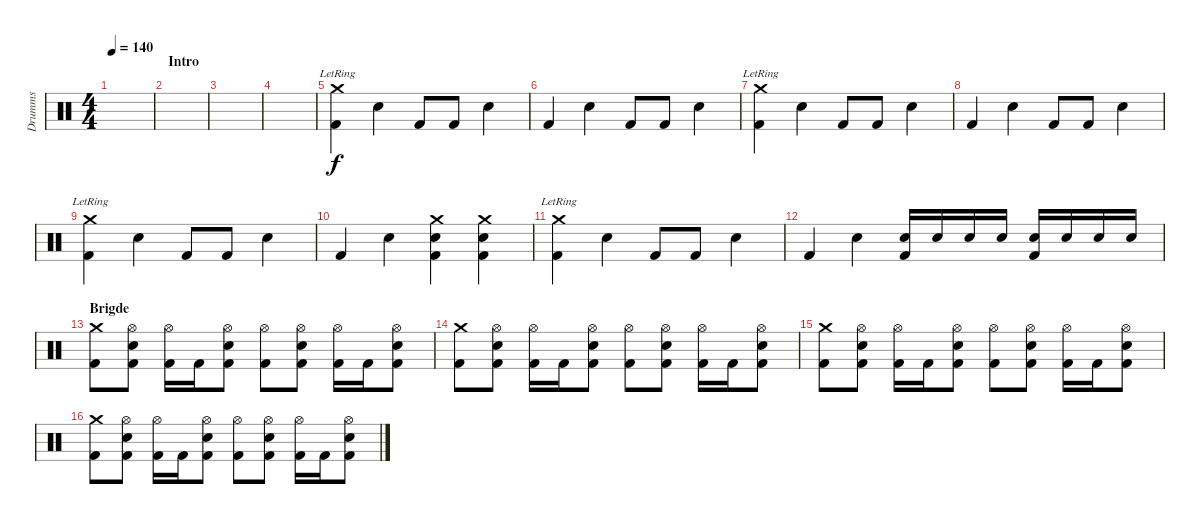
\track ("Drumms" "Drumms") {instrument percussion}
\staff {score}
\articulation defaults
\ts (4 4)
\tempo 140
\clef neutral
\ks c
|
\section ("" "Intro")
|
|
|
("Crash medium (hit)"{lr} "Kick (hit) 2").4 "Electric Snare (hit)".4 "Kick (hit) 2".8 "Kick (hit) 2".8 "Electric Snare (hit)".4 |
"Kick (hit) 2".4 "Electric Snare (hit)".4 "Kick (hit) 2".8 "Kick (hit) 2".8 "Electric Snare (hit)".4 |
("Crash medium (hit)"{lr} "Kick (hit) 2").4 "Electric Snare (hit)".4 "Kick (hit) 2".8 "Kick (hit) 2".8 "Electric Snare (hit)".4 |
"Kick (hit) 2".4 "Electric Snare (hit)".4 "Kick (hit) 2".8 "Kick (hit) 2".8 "Electric Snare (hit)".4 |
("Crash medium (hit)"{lr} "Kick (hit) 2").4 "Electric Snare (hit)".4 "Kick (hit) 2".8 "Kick (hit) 2".8 "Electric Snare (hit)".4 |
"Kick (hit) 2".4 "Electric Snare (hit)".4 ("Crash medium (hit)" "Electric Snare (hit)" "Kick (hit) 2").4 ("Crash medium (hit)" "Electric Snare (hit)" "Kick (hit) 2").4 |
("Crash medium (hit)"{lr} "Kick (hit) 2").4 "Electric Snare (hit)".4 "Kick (hit) 2".8 "Kick (hit) 2".8 "Electric Snare (hit)".4 |
"Kick (hit) 2".4 "Electric Snare (hit)".4 ("Electric Snare (hit)" "Kick (hit) 2").16 "Electric Snare (hit)".16 "Electric Snare (hit)".16 "Electric Snare (hit)".16 ("Electric Snare (hit)" "Kick (hit) 2").16 "Electric Snare (hit)".16 "Electric Snare (hit)".16 "Electric Snare (hit)".16 |
\section ("" "Brigde")
("Crash medium (hit)" "Kick (hit) 2").8 ("Hi-Hat (open)" "Electric Snare (hit)" "Kick (hit) 2").8 ("Hi-Hat (open)" "Kick (hit) 2").16 "Kick (hit) 2".16 ("Hi-Hat (open)" "Electric Snare (hit)" "Kick (hit) 2").8 ("Hi-Hat (open)" "Kick (hit) 2").8 ("Hi-Hat (open)" "Electric Snare (hit)" "Kick (hit) 2").8 ("Hi-Hat (open)" "Kick (hit) 2").16 "Kick (hit) 2".16 ("Hi-Hat (open)" "Electric Snare (hit)" "Kick (hit) 2").8 |
("Crash medium (hit)" "Kick (hit) 2").8 ("Hi-Hat (open)" "Electric Snare (hit)" "Kick (hit) 2").8 ("Hi-Hat (open)" "Kick (hit) 2").16 "Kick (hit) 2".16 ("Hi-Hat (open)" "Electric Snare (hit)" "Kick (hit) 2").8 ("Hi-Hat (open)" "Kick (hit) 2").8 ("Hi-Hat (open)" "Electric Snare (hit)" "Kick (hit) 2").8 ("Hi-Hat (open)" "Kick (hit) 2").16 "Kick (hit) 2".16 ("Hi-Hat (open)" "Electric Snare (hit)" "Kick (hit) 2").8 |
("Crash medium (hit)" "Kick (hit) 2").8 ("Hi-Hat (open)" "Electric Snare (hit)" "Kick (hit) 2").8 ("Hi-Hat (open)" "Kick (hit) 2").16 "Kick (hit) 2".16 ("Hi-Hat (open)" "Electric Snare (hit)" "Kick (hit) 2").8 ("Hi-Hat (open)" "Kick (hit) 2").8 ("Hi-Hat (open)" "Electric Snare (hit)" "Kick (hit) 2").8 ("Hi-Hat (open)" "Kick (hit) 2").16 "Kick (hit) 2".16 ("Hi-Hat (open)" "Electric Snare (hit)" "Kick (hit) 2").8 |
("Crash medium (hit)" "Kick (hit) 2").8 ("Hi-Hat (open)" "Electric Snare (hit)" "Kick (hit) 2").8 ("Hi-Hat (open)" "Kick (hit) 2").16 "Kick (hit) 2".16 ("Hi-Hat (open)" "Electric Snare (hit)" "Kick (hit) 2").8 ("Hi-Hat (open)" "Kick (hit) 2").8 ("Hi-Hat (open)" "Electric Snare (hit)" "Kick (hit) 2").8 ("Hi-Hat (open)" "Kick (hit) 2").16 "Kick (hit) 2".16 ("Hi-Hat (open)" "Electric Snare (hit)" "Kick (hit) 2").8
